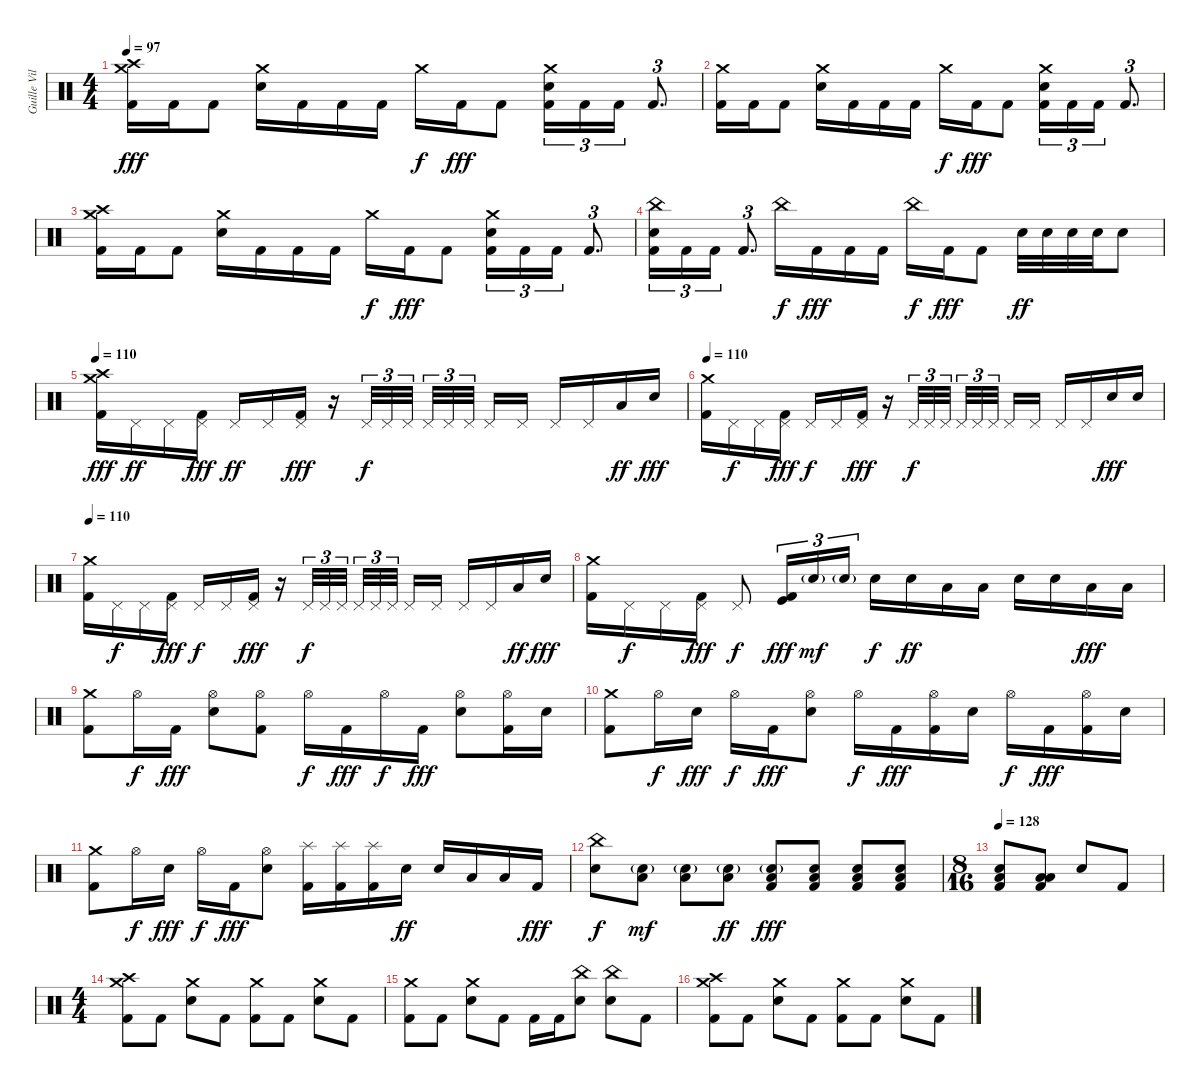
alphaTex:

\track ("Guille Vila" "Guille Vil") {instrument percussion}
\staff {score}
\articulation defaults
\ts (4 4)
\tempo 97
\clef neutral
\ks c
("Crash high (hit)" "Crash medium (hit)" "Kick (hit) 2").16{dy fff} "Kick (hit) 2".16 "Kick (hit) 2".8 ("Crash medium (hit)" "Snare (hit) 2").16 "Kick (hit) 2".16 "Kick (hit) 2".16 "Kick (hit) 2".16 "Crash medium (hit)".16{dy f} "Kick (hit) 2".16{dy fff} "Kick (hit) 2".8 ("Crash medium (hit)" "Snare (hit) 2" "Kick (hit) 2").16{tu (3 2)} "Kick (hit) 2".16{tu (3 2)} "Kick (hit) 2".16{tu (3 2)} "Kick (hit) 2".8{d tu (3 2)} |
("Crash medium (hit)" "Kick (hit) 2").16 "Kick (hit) 2".16 "Kick (hit) 2".8 ("Crash medium (hit)" "Snare (hit) 2").16 "Kick (hit) 2".16 "Kick (hit) 2".16 "Kick (hit) 2".16 "Crash medium (hit)".16{dy f} "Kick (hit) 2".16{dy fff} "Kick (hit) 2".8 ("Crash medium (hit)" "Snare (hit) 2" "Kick (hit) 2").16{tu (3 2)} "Kick (hit) 2".16{tu (3 2)} "Kick (hit) 2".16{tu (3 2)} "Kick (hit) 2".8{d tu (3 2)} |
("Crash high (hit)" "Crash medium (hit)" "Kick (hit) 2").16 "Kick (hit) 2".16 "Kick (hit) 2".8 ("Crash medium (hit)" "Snare (hit) 2").16 "Kick (hit) 2".16 "Kick (hit) 2".16 "Kick (hit) 2".16 "Crash medium (hit)".16{dy f} "Kick (hit) 2".16{dy fff} "Kick (hit) 2".8 ("Crash medium (hit)" "Snare (hit) 2" "Kick (hit) 2").16{tu (3 2)} "Kick (hit) 2".16{tu (3 2)} "Kick (hit) 2".16{tu (3 2)} "Kick (hit) 2".8{d tu (3 2)} |
("China (hit)" "Snare (hit) 2" "Kick (hit) 2").16{tu (3 2)} "Kick (hit) 2".16{tu (3 2)} "Kick (hit) 2".16{tu (3 2)} "Kick (hit) 2".8{d tu (3 2)} "China (hit)".16{dy f} "Kick (hit) 2".16{dy fff} "Kick (hit) 2".16 "Kick (hit) 2".16 "China (hit)".16{dy f} "Kick (hit) 2".16{dy fff} "Kick (hit) 2".8 "Snare (hit) 2".32{dy ff} "Snare (hit) 2".32 "Snare (hit) 2".32 "Snare (hit) 2".32 "Snare (hit) 2".8 |
\tempo 110
("Crash high (hit)" "Crash medium (hit)" "Kick (hit) 2").16{dy fff} "Pedal Hi-Hat (hit)".16{dy ff} "Pedal Hi-Hat (hit)".16 ("Pedal Hi-Hat (hit)" "Kick (hit) 2").16{dy fff} "Pedal Hi-Hat (hit)".16{dy ff} "Pedal Hi-Hat (hit)".16 ("Pedal Hi-Hat (hit)" "Kick (hit) 2").16{dy fff} r.16 "Pedal Hi-Hat (hit)".32{tu (3 2) dy f} "Pedal Hi-Hat (hit)".32{tu (3 2)} "Pedal Hi-Hat (hit)".32{tu (3 2) beam splitsecondary} "Pedal Hi-Hat (hit)".32{tu (3 2)} "Pedal Hi-Hat (hit)".32{tu (3 2)} "Pedal Hi-Hat (hit)".32{tu (3 2) beam splitsecondary} "Pedal Hi-Hat (hit)".16 "Pedal Hi-Hat (hit)".16 "Pedal Hi-Hat (hit)".16 "Pedal Hi-Hat (hit)".16 "Low Tom (hit)".16{dy ff} "Snare (hit) 2".16{dy fff} |
\tempo 110
("Crash medium (hit)" "Kick (hit) 2").16 "Pedal Hi-Hat (hit)".16{dy f} "Pedal Hi-Hat (hit)".16 ("Pedal Hi-Hat (hit)" "Kick (hit) 2").16{dy fff} "Pedal Hi-Hat (hit)".16{dy f} "Pedal Hi-Hat (hit)".16 ("Pedal Hi-Hat (hit)" "Kick (hit) 2").16{dy fff} r.16 "Pedal Hi-Hat (hit)".32{tu (3 2) dy f} "Pedal Hi-Hat (hit)".32{tu (3 2)} "Pedal Hi-Hat (hit)".32{tu (3 2) beam splitsecondary} "Pedal Hi-Hat (hit)".32{tu (3 2)} "Pedal Hi-Hat (hit)".32{tu (3 2)} "Pedal Hi-Hat (hit)".32{tu (3 2) beam splitsecondary} "Pedal Hi-Hat (hit)".16 "Pedal Hi-Hat (hit)".16 "Pedal Hi-Hat (hit)".16 "Pedal Hi-Hat (hit)".16 "Snare (hit) 2".16{dy fff} "Snare (hit) 2".16 |
\tempo 110
("Crash medium (hit)" "Kick (hit) 2").16 "Pedal Hi-Hat (hit)".16{dy f} "Pedal Hi-Hat (hit)".16 ("Pedal Hi-Hat (hit)" "Kick (hit) 2").16{dy fff} "Pedal Hi-Hat (hit)".16{dy f} "Pedal Hi-Hat (hit)".16 ("Pedal Hi-Hat (hit)" "Kick (hit) 2").16{dy fff} r.16 "Pedal Hi-Hat (hit)".32{tu (3 2) dy f} "Pedal Hi-Hat (hit)".32{tu (3 2)} "Pedal Hi-Hat (hit)".32{tu (3 2) beam splitsecondary} "Pedal Hi-Hat (hit)".32{tu (3 2)} "Pedal Hi-Hat (hit)".32{tu (3 2)} "Pedal Hi-Hat (hit)".32{tu (3 2) beam splitsecondary} "Pedal Hi-Hat (hit)".16 "Pedal Hi-Hat (hit)".16 "Pedal Hi-Hat (hit)".16 "Pedal Hi-Hat (hit)".16 "Low Tom (hit)".16{dy ff} "Snare (hit) 2".16{dy fff} |
("Crash medium (hit)" "Kick (hit) 2").16 "Pedal Hi-Hat (hit)".16{dy f} "Pedal Hi-Hat (hit)".16 ("Pedal Hi-Hat (hit)" "Kick (hit) 2").16{dy fff} "Pedal Hi-Hat (hit)".8{dy f} ("Kick (hit)" "Kick (hit) 2").16{tu (3 2) dy fff} "Snare (hit) 2"{g}.16{tu (3 2) dy mf} "Snare (hit) 2"{g}.16{tu (3 2)} "Snare (hit) 2".16{dy f} "Snare (hit) 2".16{dy ff} "Low Tom (hit)".16 "Low Tom (hit)".16 "Snare (hit) 2".16 "Snare (hit) 2".16 "Low Tom (hit)".16{dy fff} "Low Tom (hit)".16 |
("Crash medium (hit)" "Kick (hit) 2").8 "Hi-Hat (open)".16{dy f} "Kick (hit) 2".16{dy fff} ("Hi-Hat (open)" "Snare (hit) 2").8 ("Hi-Hat (open)" "Kick (hit) 2").8 "Hi-Hat (open)".16{dy f} "Kick (hit) 2".16{dy fff} "Hi-Hat (open)".16{dy f} "Kick (hit) 2".16{dy fff} ("Hi-Hat (open)" "Snare (hit) 2").8 ("Hi-Hat (open)" "Kick (hit) 2").16 "Snare (hit) 2".16 |
("Crash medium (hit)" "Kick (hit) 2").8 "Hi-Hat (open)".16{dy f} "Snare (hit) 2".16{dy fff} "Hi-Hat (open)".16{dy f} "Kick (hit) 2".16{dy fff} ("Hi-Hat (open)" "Snare (hit) 2").8 "Hi-Hat (open)".16{dy f} "Kick (hit) 2".16{dy fff} ("Hi-Hat (open)" "Kick (hit) 2").16 "Snare (hit) 2".16 "Hi-Hat (open)".16{dy f} "Kick (hit) 2".16{dy fff} ("Hi-Hat (open)" "Kick (hit) 2").16 "Snare (hit) 2".16 |
("Crash medium (hit)" "Kick (hit) 2").8 "Hi-Hat (open)".16{dy f} "Snare (hit) 2".16{dy fff} "Hi-Hat (open)".16{dy f} "Kick (hit) 2".16{dy fff} ("Hi-Hat (open)" "Snare (hit) 2").8 ("Splash (hit)" "Kick (hit) 2").16 ("Splash (hit)" "Kick (hit) 2").16 ("Splash (hit)" "Kick (hit) 2").16 "Snare (hit) 2".16{dy ff} "Snare (hit) 2".16 "Low Tom (hit)".16 "Low Tom (hit)".16 "Kick (hit) 2".16{dy fff} |
("China (hit)" "Snare (hit) 2").8{dy f} ("Snare (hit) 2"{g} "Low Floor Tom (hit)").8{dy mf} ("Snare (hit) 2"{g} "Low Floor Tom (hit)").8 ("Snare (hit) 2"{g} "Low Floor Tom (hit)").8{dy ff} ("Snare (hit) 2"{g} "Low Floor Tom (hit)" "Kick (hit) 2").8{dy fff} ("Snare (hit) 2" "Low Floor Tom (hit)" "Kick (hit) 2").8 ("Snare (hit) 2" "Low Floor Tom (hit)" "Kick (hit) 2").8 ("Snare (hit) 2" "Low Floor Tom (hit)" "Kick (hit) 2").8 |
\ts (8 16)
\tempo 128
("Snare (hit) 2" "Low Floor Tom (hit)" "Kick (hit) 2").8 ("Low Floor Tom (hit)" "Low Floor Tom (hit)" "Kick (hit) 2").8 "Snare (hit) 2".8 "Kick (hit) 2".8 |
\ts (4 4)
("Crash high (hit)" "Crash medium (hit)" "Kick (hit) 2").8 "Kick (hit) 2".8 ("Crash medium (hit)" "Snare (hit) 2").8 "Kick (hit) 2".8 ("Crash medium (hit)" "Kick (hit) 2").8 "Kick (hit) 2".8 ("Crash medium (hit)" "Snare (hit) 2").8 "Kick (hit) 2".8 |
("Crash medium (hit)" "Kick (hit) 2").8 "Kick (hit) 2".8 ("Crash medium (hit)" "Snare (hit) 2").8 "Kick (hit) 2".8 "Kick (hit) 2".16 "Kick (hit) 2".16 ("China (hit)" "Snare (hit) 2").8 ("China (hit)" "Snare (hit) 2").8 "Kick (hit) 2".8 |
("Crash high (hit)" "Crash medium (hit)" "Kick (hit) 2").8 "Kick (hit) 2".8 ("Crash medium (hit)" "Snare (hit) 2").8 "Kick (hit) 2".8 ("Crash medium (hit)" "Kick (hit) 2").8 "Kick (hit) 2".8 ("Crash medium (hit)" "Snare (hit) 2").8 "Kick (hit) 2".8
